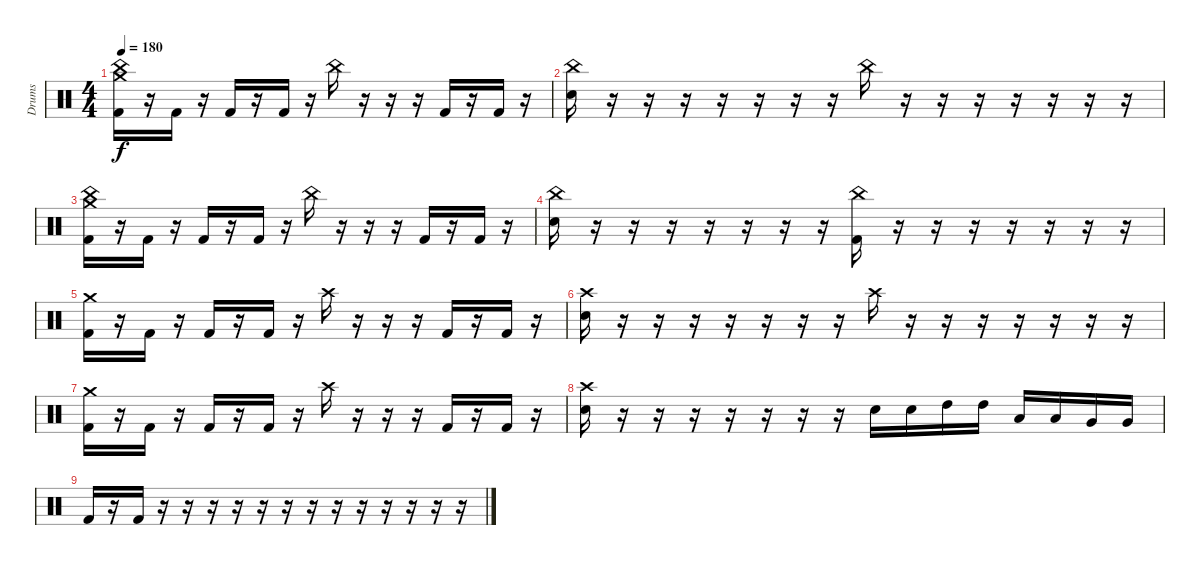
\track ("Drums" "Drums") {instrument percussion}
\staff {score}
\articulation defaults
\ts (4 4)
\tempo 180
\clef neutral
\ks c
("China (hit)" "Crash medium (hit)" "Kick (hit) 2").16{dy f} r.16 "Kick (hit) 2".16 r.16 "Kick (hit) 2".16 r.16 "Kick (hit) 2".16 r.16 "China (hit)".16 r.16 r.16 r.16 "Kick (hit) 2".16 r.16 "Kick (hit) 2".16 r.16 |
("China (hit)" "Electric Snare (hit)").16 r.16 r.16 r.16 r.16 r.16 r.16 r.16 "China (hit)".16 r.16 r.16 r.16 r.16 r.16 r.16 r.16 |
("China (hit)" "Crash medium (hit)" "Kick (hit) 2").16 r.16 "Kick (hit) 2".16 r.16 "Kick (hit) 2".16 r.16 "Kick (hit) 2".16 r.16 "China (hit)".16 r.16 r.16 r.16 "Kick (hit) 2".16 r.16 "Kick (hit) 2".16 r.16 |
("China (hit)" "Electric Snare (hit)").16 r.16 r.16 r.16 r.16 r.16 r.16 r.16 ("China (hit)" "Kick (hit) 2").16 r.16 r.16 r.16 r.16 r.16 r.16 r.16 |
("Crash medium (hit)" "Kick (hit) 2").16 r.16 "Kick (hit) 2".16 r.16 "Kick (hit) 2".16 r.16 "Kick (hit) 2".16 r.16 "Crash high (hit)".16 r.16 r.16 r.16 "Kick (hit) 2".16 r.16 "Kick (hit) 2".16 r.16 |
("Crash high (hit)" "Electric Snare (hit)").16 r.16 r.16 r.16 r.16 r.16 r.16 r.16 "Crash high (hit)".16 r.16 r.16 r.16 r.16 r.16 r.16 r.16 |
("Crash medium (hit)" "Kick (hit) 2").16 r.16 "Kick (hit) 2".16 r.16 "Kick (hit) 2".16 r.16 "Kick (hit) 2".16 r.16 "Crash high (hit)".16 r.16 r.16 r.16 "Kick (hit) 2".16 r.16 "Kick (hit) 2".16 r.16 |
("Crash high (hit)" "Electric Snare (hit)").16 r.16 r.16 r.16 r.16 r.16 r.16 r.16 "Electric Snare (hit)".16 "Electric Snare (hit)".16 "High Tom (hit)".16 "High Tom (hit)".16 "Low Tom (hit)".16 "Low Tom (hit)".16 "Very Low Tom (hit)".16 "Very Low Tom (hit)".16 |
"Kick (hit) 2".16 r.16 "Kick (hit) 2".16 r.16 r.16 r.16 r.16 r.16 r.16 r.16 r.16 r.16 r.16 r.16 r.16 r.16
